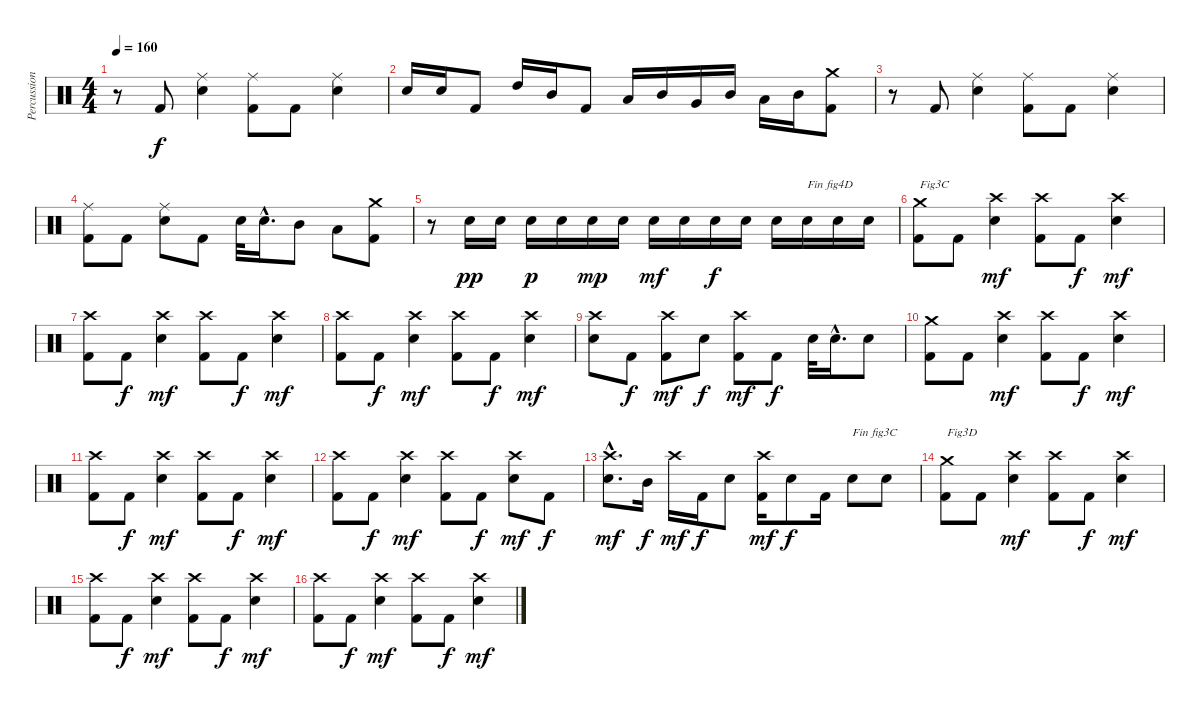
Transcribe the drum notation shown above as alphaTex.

\track ("Percussions" "Percussion") {instrument percussion}
\staff {score}
\articulation defaults
\ts (4 4)
\tempo 160
\clef neutral
\ks c
r.8{dy f} "Kick (hit) 2".8 ("Electric Snare (hit)" "Ride (middle)").4 ("Kick (hit) 2" "Ride (middle)").8 "Kick (hit) 2".8 ("Electric Snare (hit)" "Ride (middle)").4 |
"Electric Snare (hit)".16 "Electric Snare (hit)".16 "Kick (hit) 2".8 "High Tom (hit)".16 "Mid Tom (hit)".16 "Kick (hit) 2".8 "Low Tom (hit)".16 "Mid Tom (hit)".16 "Very Low Tom (hit)".16 "Mid Tom (hit)".16 "Low Floor Tom (hit)".16 "Mid Tom (hit)".16 ("Kick (hit) 2" "Crash medium (hit)").8 |
r.8 "Kick (hit) 2".8 ("Electric Snare (hit)" "Ride (middle)").4 ("Kick (hit) 2" "Ride (middle)").8 "Kick (hit) 2".8 ("Electric Snare (hit)" "Ride (middle)").4 |
("Kick (hit) 2" "Ride (middle)").8 "Kick (hit) 2".8 ("Electric Snare (hit)" "Ride (middle)").8 "Kick (hit) 2".8 "Electric Snare (hit)".32 "Electric Snare (hit)"{hac}.16{d} "Mid Tom (hit)".8 "Low Tom (hit)".8 ("Kick (hit) 2" "Crash medium (hit)").8 |
r.8 "Electric Snare (hit)".16{dy pp} "Electric Snare (hit)".16 "Electric Snare (hit)".16{dy p} "Electric Snare (hit)".16 "Electric Snare (hit)".16{dy mp} "Electric Snare (hit)".16 "Electric Snare (hit)".16{dy mf} "Electric Snare (hit)".16 "Electric Snare (hit)".16{dy f} "Electric Snare (hit)".16 "Electric Snare (hit)".16 "Electric Snare (hit)".16{txt "Fin fig4D"} "Electric Snare (hit)".16 "Electric Snare (hit)".16 |
("Kick (hit) 2" "Crash medium (hit)").8{txt "Fig3C"} "Kick (hit) 2".8 ("Electric Snare (hit)" "Crash high (hit)").4{dy mf} ("Kick (hit) 2" "Crash high (hit)").8 "Kick (hit) 2".8{dy f} ("Electric Snare (hit)" "Crash high (hit)").4{dy mf} |
("Kick (hit) 2" "Crash high (hit)").8 "Kick (hit) 2".8{dy f} ("Electric Snare (hit)" "Crash high (hit)").4{dy mf} ("Kick (hit) 2" "Crash high (hit)").8 "Kick (hit) 2".8{dy f} ("Electric Snare (hit)" "Crash high (hit)").4{dy mf} |
("Kick (hit) 2" "Crash high (hit)").8 "Kick (hit) 2".8{dy f} ("Electric Snare (hit)" "Crash high (hit)").4{dy mf} ("Kick (hit) 2" "Crash high (hit)").8 "Kick (hit) 2".8{dy f} ("Electric Snare (hit)" "Crash high (hit)").4{dy mf} |
("Electric Snare (hit)" "Crash high (hit)").8 "Kick (hit) 2".8{dy f} ("Kick (hit) 2" "Crash high (hit)").8{dy mf} "Electric Snare (hit)".8{dy f} ("Kick (hit) 2" "Crash high (hit)").8{dy mf} "Kick (hit) 2".8{dy f} "Electric Snare (hit)".32 "Electric Snare (hit)"{hac}.16{d} "Electric Snare (hit)".8 |
("Kick (hit) 2" "Crash medium (hit)").8 "Kick (hit) 2".8 ("Electric Snare (hit)" "Crash high (hit)").4{dy mf} ("Kick (hit) 2" "Crash high (hit)").8 "Kick (hit) 2".8{dy f} ("Electric Snare (hit)" "Crash high (hit)").4{dy mf} |
("Kick (hit) 2" "Crash high (hit)").8 "Kick (hit) 2".8{dy f} ("Electric Snare (hit)" "Crash high (hit)").4{dy mf} ("Kick (hit) 2" "Crash high (hit)").8 "Kick (hit) 2".8{dy f} ("Electric Snare (hit)" "Crash high (hit)").4{dy mf} |
("Kick (hit) 2" "Crash high (hit)").8 "Kick (hit) 2".8{dy f} ("Electric Snare (hit)" "Crash high (hit)").4{dy mf} ("Kick (hit) 2" "Crash high (hit)").8 "Kick (hit) 2".8{dy f} ("Electric Snare (hit)" "Crash high (hit)").8{dy mf} "Kick (hit) 2".8{dy f} |
("Electric Snare (hit)"{hac} "Crash high (hit)"{hac}).8{d dy mf} "Mid Tom (hit)".16{dy f} "Crash high (hit)".16{dy mf} "Kick (hit) 2".16{dy f} "Electric Snare (hit)".8 ("Kick (hit) 2" "Crash high (hit)").16{dy mf} "Electric Snare (hit)".8{dy f} "Kick (hit) 2".16 "Electric Snare (hit)".8{txt "Fin fig3C"} "Electric Snare (hit)".8 |
("Kick (hit) 2" "Crash medium (hit)").8{txt "Fig3D"} "Kick (hit) 2".8 ("Electric Snare (hit)" "Crash high (hit)").4{dy mf} ("Kick (hit) 2" "Crash high (hit)").8 "Kick (hit) 2".8{dy f} ("Electric Snare (hit)" "Crash high (hit)").4{dy mf} |
("Kick (hit) 2" "Crash high (hit)").8 "Kick (hit) 2".8{dy f} ("Electric Snare (hit)" "Crash high (hit)").4{dy mf} ("Kick (hit) 2" "Crash high (hit)").8 "Kick (hit) 2".8{dy f} ("Electric Snare (hit)" "Crash high (hit)").4{dy mf} |
("Kick (hit) 2" "Crash high (hit)").8 "Kick (hit) 2".8{dy f} ("Electric Snare (hit)" "Crash high (hit)").4{dy mf} ("Kick (hit) 2" "Crash high (hit)").8 "Kick (hit) 2".8{dy f} ("Electric Snare (hit)" "Crash high (hit)").4{dy mf}
